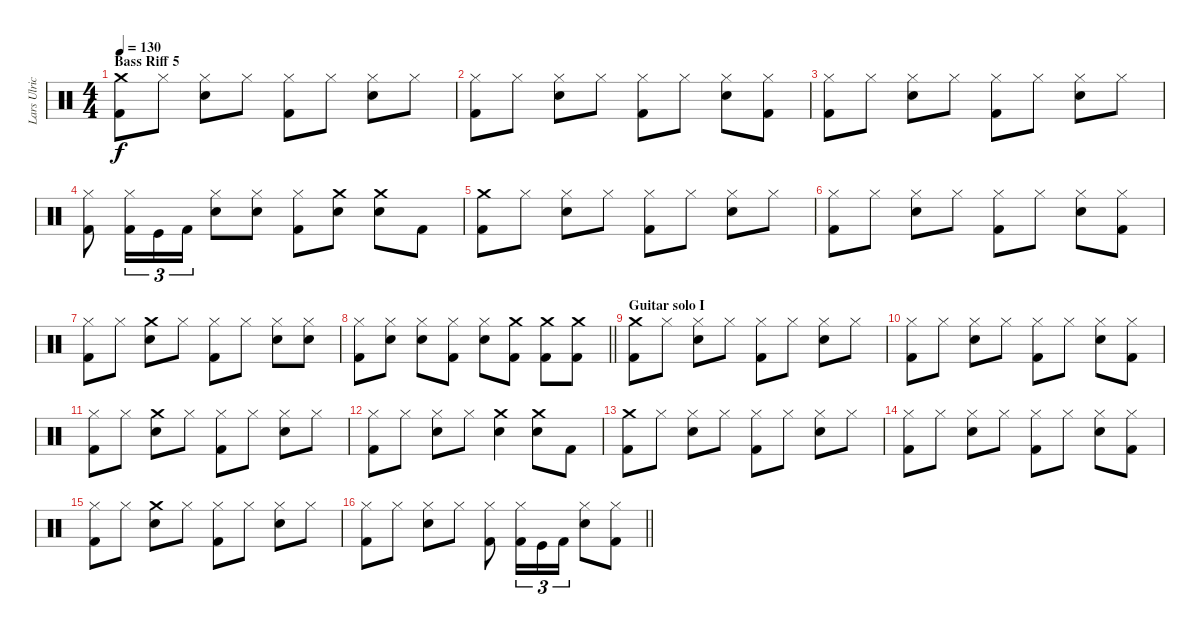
\track ("Lars Ulrich (Drums)" "Lars Ulric") {instrument percussion}
\staff {score}
\articulation defaults
\ts (4 4)
\section ("" "Bass Riff 5")
\tempo 130
\clef neutral
\ks c
("Crash medium (hit)" "Kick (hit) 2").8{dy f} "Hi-Hat (closed)".8 ("Snare (hit) 2" "Hi-Hat (closed)").8 "Hi-Hat (closed)".8 ("Hi-Hat (closed)" "Kick (hit) 2").8 "Hi-Hat (closed)".8 ("Snare (hit) 2" "Hi-Hat (closed)").8 "Hi-Hat (closed)".8 |
("Hi-Hat (closed)" "Kick (hit) 2").8 "Hi-Hat (closed)".8 ("Snare (hit) 2" "Hi-Hat (closed)").8 "Hi-Hat (closed)".8 ("Hi-Hat (closed)" "Kick (hit) 2").8 "Hi-Hat (closed)".8 ("Snare (hit) 2" "Hi-Hat (closed)").8 ("Hi-Hat (closed)" "Kick (hit) 2").8 |
("Hi-Hat (closed)" "Kick (hit) 2").8 "Hi-Hat (closed)".8 ("Snare (hit) 2" "Hi-Hat (closed)").8 "Hi-Hat (closed)".8 ("Hi-Hat (closed)" "Kick (hit) 2").8 "Hi-Hat (closed)".8 ("Snare (hit) 2" "Hi-Hat (closed)").8 "Hi-Hat (closed)".8 |
("Kick (hit) 2" "Hi-Hat (closed)").8 ("Kick (hit) 2" "Hi-Hat (closed)").16{tu (3 2)} "Kick (hit)".16{tu (3 2)} "Kick (hit) 2".16{tu (3 2)} ("Snare (hit) 2" "Hi-Hat (closed)").8 ("Snare (hit) 2" "Hi-Hat (closed)").8 ("Kick (hit) 2" "Hi-Hat (closed)").8 ("Crash medium (hit)" "Snare (hit) 2").8 ("Snare (hit) 2" "Crash medium (hit)").8 "Kick (hit) 2".8 |
("Crash medium (hit)" "Kick (hit) 2").8 "Hi-Hat (closed)".8 ("Snare (hit) 2" "Hi-Hat (closed)").8 "Hi-Hat (closed)".8 ("Hi-Hat (closed)" "Kick (hit) 2").8 "Hi-Hat (closed)".8 ("Snare (hit) 2" "Hi-Hat (closed)").8 "Hi-Hat (closed)".8 |
("Hi-Hat (closed)" "Kick (hit) 2").8 "Hi-Hat (closed)".8 ("Snare (hit) 2" "Hi-Hat (closed)").8 "Hi-Hat (closed)".8 ("Hi-Hat (closed)" "Kick (hit) 2").8 "Hi-Hat (closed)".8 ("Snare (hit) 2" "Hi-Hat (closed)").8 ("Hi-Hat (closed)" "Kick (hit) 2").8 |
("Hi-Hat (closed)" "Kick (hit) 2").8 "Hi-Hat (closed)".8 ("Crash medium (hit)" "Snare (hit) 2").8 "Hi-Hat (closed)".8 ("Hi-Hat (closed)" "Kick (hit) 2").8 "Hi-Hat (closed)".8 ("Snare (hit) 2" "Hi-Hat (closed)").8 ("Snare (hit) 2" "Hi-Hat (closed)").8 |
\barLineRight lightlight
("Kick (hit) 2" "Hi-Hat (closed)").8 ("Snare (hit) 2" "Hi-Hat (closed)").8 ("Snare (hit) 2" "Hi-Hat (closed)").8 ("Hi-Hat (closed)" "Kick (hit) 2").8 ("Snare (hit) 2" "Hi-Hat (closed)").8 ("Crash medium (hit)" "Kick (hit) 2").8 ("Crash medium (hit)" "Kick (hit) 2").8 ("Crash medium (hit)" "Kick (hit) 2").8 |
\section ("" "Guitar solo I")
("Crash medium (hit)" "Kick (hit) 2").8 "Hi-Hat (closed)".8 ("Snare (hit) 2" "Hi-Hat (closed)").8 "Hi-Hat (closed)".8 ("Hi-Hat (closed)" "Kick (hit) 2").8 "Hi-Hat (closed)".8 ("Snare (hit) 2" "Hi-Hat (closed)").8 "Hi-Hat (closed)".8 |
("Hi-Hat (closed)" "Kick (hit) 2").8 "Hi-Hat (closed)".8 ("Snare (hit) 2" "Hi-Hat (closed)").8 "Hi-Hat (closed)".8 ("Hi-Hat (closed)" "Kick (hit) 2").8 "Hi-Hat (closed)".8 ("Snare (hit) 2" "Hi-Hat (closed)").8 ("Hi-Hat (closed)" "Kick (hit) 2").8 |
("Hi-Hat (closed)" "Kick (hit) 2").8 "Hi-Hat (closed)".8 ("Crash medium (hit)" "Snare (hit) 2").8 "Hi-Hat (closed)".8 ("Hi-Hat (closed)" "Kick (hit) 2").8 "Hi-Hat (closed)".8 ("Snare (hit) 2" "Hi-Hat (closed)").8 "Hi-Hat (closed)".8 |
("Hi-Hat (closed)" "Kick (hit) 2").8 "Hi-Hat (closed)".8 ("Hi-Hat (closed)" "Snare (hit) 2").8 "Hi-Hat (closed)".8 ("Crash medium (hit)" "Snare (hit) 2").4 ("Crash medium (hit)" "Snare (hit) 2").8 "Kick (hit) 2".8 |
("Crash medium (hit)" "Kick (hit) 2").8 "Hi-Hat (closed)".8 ("Snare (hit) 2" "Hi-Hat (closed)").8 "Hi-Hat (closed)".8 ("Hi-Hat (closed)" "Kick (hit) 2").8 "Hi-Hat (closed)".8 ("Snare (hit) 2" "Hi-Hat (closed)").8 "Hi-Hat (closed)".8 |
("Hi-Hat (closed)" "Kick (hit) 2").8 "Hi-Hat (closed)".8 ("Snare (hit) 2" "Hi-Hat (closed)").8 "Hi-Hat (closed)".8 ("Hi-Hat (closed)" "Kick (hit) 2").8 "Hi-Hat (closed)".8 ("Snare (hit) 2" "Hi-Hat (closed)").8 ("Hi-Hat (closed)" "Kick (hit) 2").8 |
("Hi-Hat (closed)" "Kick (hit) 2").8 "Hi-Hat (closed)".8 ("Crash medium (hit)" "Snare (hit) 2").8 "Hi-Hat (closed)".8 ("Hi-Hat (closed)" "Kick (hit) 2").8 "Hi-Hat (closed)".8 ("Snare (hit) 2" "Hi-Hat (closed)").8 "Hi-Hat (closed)".8 |
\barLineRight lightlight
("Kick (hit) 2" "Hi-Hat (closed)").8 "Hi-Hat (closed)".8 ("Hi-Hat (closed)" "Snare (hit) 2").8 "Hi-Hat (closed)".8 ("Kick (hit) 2" "Hi-Hat (closed)").8 ("Kick (hit) 2" "Hi-Hat (closed)").16{tu (3 2)} "Kick (hit)".16{tu (3 2)} "Kick (hit) 2".16{tu (3 2)} ("Snare (hit) 2" "Hi-Hat (closed)").8 ("Kick (hit) 2" "Hi-Hat (closed)").8
